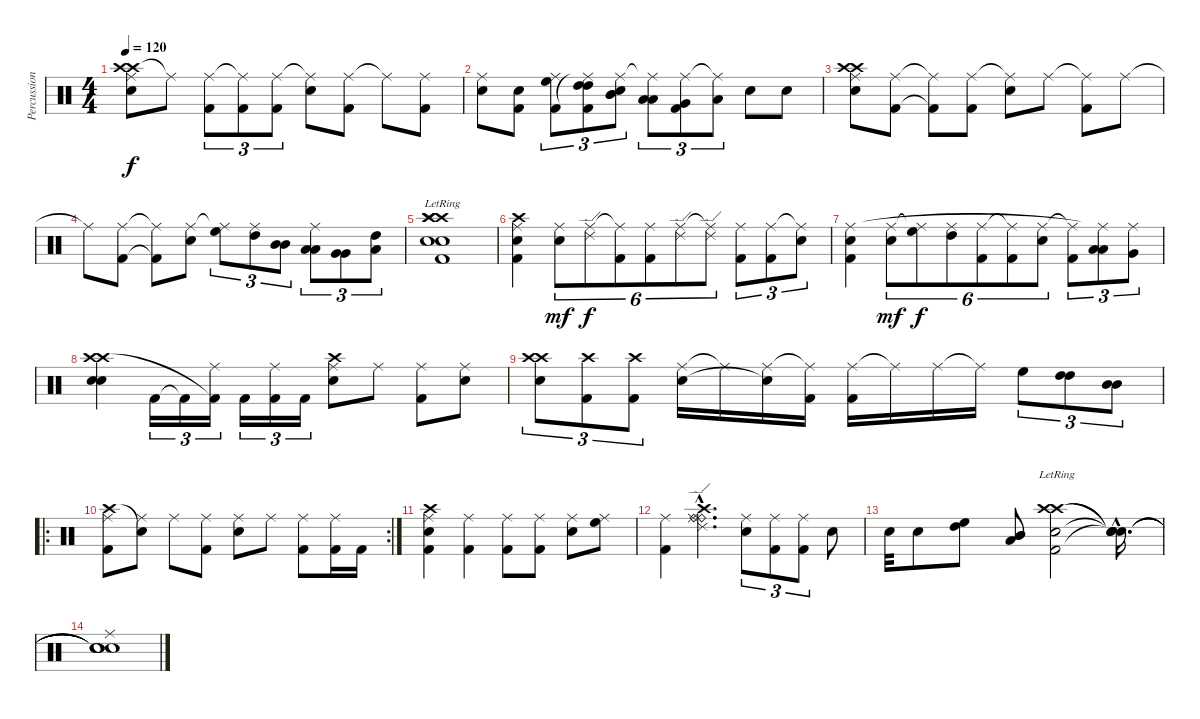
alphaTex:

\track ("Percussioni" "Percussion") {instrument percussion}
\staff {score}
\articulation defaults
\ts (4 4)
\tempo 120
\clef neutral
\ks c
("Crash high (hit)" "Crash high (hit)" "Ride (middle)" "Electric Snare (hit)").8{dy f} "Ride (middle)"{t}.8 ("Ride (middle)" "Kick (hit) 2").8{tu (3 2)} ("Ride (middle)"{t} "Kick (hit) 2").8{tu (3 2)} ("Ride (middle)" "Kick (hit) 2").8{tu (3 2)} ("Ride (middle)"{t} "Electric Snare (hit)").8 ("Ride (middle)" "Kick (hit) 2").8 "Ride (middle)"{t}.8 ("Ride (middle)" "Kick (hit) 2").8 |
("Ride (middle)" "Electric Snare (hit)").8 ("Electric Snare (hit)" "Kick (hit) 2").8 ("High Floor Tom (hit)" "Ride (middle)" "Kick (hit) 2").8{tu (3 2)} ("High Tom (hit)" "High Tom (hit)" "Ride (middle)"{t} "Kick (hit) 2").8{tu (3 2)} ("Mid Tom (hit)" "Mid Tom (hit)" "Ride (middle)" "Electric Snare (hit)").8{tu (3 2)} ("Low Tom (hit)" "Low Tom (hit)" "Ride (middle)"{t}).8{tu (3 2)} ("Very Low Tom (hit)" "Ride (middle)" "Kick (hit) 2").8{tu (3 2)} ("Low Floor Tom (hit)" "Ride (middle)"{t}).8{tu (3 2)} "Electric Snare (hit)".8 "Electric Snare (hit)".8 |
("Crash high (hit)" "Crash high (hit)" "Ride (middle)" "Electric Snare (hit)").8 ("Ride (middle)" "Kick (hit) 2").8 ("Ride (middle)"{t} "Kick (hit) 2"{t}).8 ("Ride (middle)" "Kick (hit) 2").8 ("Ride (middle)"{t} "Electric Snare (hit)").8 "Ride (middle)".8 ("Ride (middle)"{t} "Kick (hit) 2").8 "Ride (middle)".8 |
"Ride (middle)"{t}.8 ("Ride (middle)" "Kick (hit) 2").8 ("Ride (middle)"{t} "Kick (hit) 2"{t}).8 ("Ride (middle)" "Electric Snare (hit)").8 ("Ride (middle)"{t} "High Floor Tom (hit)").8{tu (3 2)} ("Ride (middle)" "High Tom (hit)").8{tu (3 2)} ("Mid Tom (hit)" "Mid Tom (hit)").8{tu (3 2)} ("Low Tom (hit)" "Low Tom (hit)" "Ride (middle)").8{tu (3 2)} ("Very Low Tom (hit)" "Very Low Tom (hit)").8{tu (3 2)} ("High Tom (hit)" "Low Floor Tom (hit)").8{tu (3 2)} |
("Kick (hit) 2" "Crash high (hit)"{lr} "Crash high (hit)"{lr} "Crash high (hit)"{lr} "Electric Snare (hit)" "Electric Snare (hit)").1 |
("Crash high (hit)" "Electric Snare (hit)" "Kick (hit) 2" "Ride (middle)").4 ("Electric Snare (hit)" "Ride (middle)").8{tu (6 4) dy mf} ("Ride (edge) 2" "Ride (middle)").8{tu (6 4) dy f} ("Kick (hit) 2" "Ride (middle)"{t}).8{tu (6 4)} ("Kick (hit) 2" "Ride (middle)").8{tu (6 4)} ("Ride (edge) 2" "Ride (middle)").8{tu (6 4)} ("Ride (edge) 2" "Ride (middle)"{t}).8{tu (6 4)} ("Kick (hit) 2" "Ride (middle)").8{tu (3 2)} ("Kick (hit) 2" "Ride (middle)").8{tu (3 2)} ("Electric Snare (hit)" "Ride (middle)"{t}).8{tu (3 2)} |
("Electric Snare (hit)" "Kick (hit) 2" "Ride (middle)").4 ("Electric Snare (hit)" "Ride (middle)").8{tu (6 4) dy mf} ("High Floor Tom (hit)" "Ride (middle)"{t}).8{tu (6 4) dy f} ("High Tom (hit)" "Ride (middle)").8{tu (6 4)} ("Kick (hit) 2" "Ride (middle)").8{tu (6 4)} ("Kick (hit) 2" "Ride (middle)"{t}).8{tu (6 4)} ("Electric Snare (hit)" "Ride (middle)").8{tu (6 4)} ("Kick (hit) 2" "Ride (middle)"{t}).8{tu (3 2)} ("Low Tom (hit)" "Low Tom (hit)" "Ride (middle)"{t}).8{tu (3 2)} ("Very Low Tom (hit)" "Ride (middle)").8{tu (3 2)} |
("Crash high (hit)" "Crash high (hit)" "Electric Snare (hit)" "Electric Snare (hit)").4 "Kick (hit) 2".16{tu (3 2)} "Kick (hit) 2"{t}.16{tu (3 2)} ("Ride (middle)" "Kick (hit) 2"{t}).16{tu (3 2)} "Kick (hit) 2".16{tu (3 2)} ("Ride (middle)" "Kick (hit) 2").16{tu (3 2)} "Kick (hit) 2".16{tu (3 2)} ("Crash high (hit)" "Electric Snare (hit)" "Ride (middle)").8 "Ride (middle)".8 ("Kick (hit) 2" "Ride (middle)").8 ("Electric Snare (hit)" "Ride (middle)").8 |
("Electric Snare (hit)" "Crash high (hit)" "Crash high (hit)").8{tu (3 2)} ("Kick (hit) 2" "Crash high (hit)").8{tu (3 2)} ("Kick (hit) 2" "Crash high (hit)").8{tu (3 2)} ("Ride (middle)" "Electric Snare (hit)").16 "Ride (middle)"{t}.16 ("Ride (middle)" "Electric Snare (hit)"{t}).16 ("Ride (middle)"{t} "Kick (hit) 2").16 ("Ride (middle)" "Kick (hit) 2").16 "Ride (middle)"{t}.16 "Ride (middle)".16 "Ride (middle)"{t}.16 "High Floor Tom (hit)".8{tu (3 2)} ("High Tom (hit)" "High Tom (hit)").8{tu (3 2) bd 60} ("Mid Tom (hit)" "Mid Tom (hit)").8{tu (3 2) bd 480} |
\ro
\rc 2
("Crash high (hit)" "Kick (hit) 2" "Ride (middle)").8 ("Snare (hit)"{t} "Ride (middle)").8 "Ride (middle)".8 ("Ride (middle)" "Kick (hit) 2").8 ("Ride (middle)" "Electric Snare (hit)").8 "Ride (middle)".8 ("Ride (middle)" "Kick (hit) 2").8 ("Ride (middle)" "Kick (hit) 2").16 "Kick (hit) 2".16 |
("Crash high (hit)" "Ride (middle)" "Electric Snare (hit)" "Kick (hit) 2").4{bd 120} ("Ride (middle)" "Kick (hit) 2").4 ("Ride (middle)" "Kick (hit) 2").8 ("Ride (middle)" "Kick (hit) 2").8 ("Ride (middle)" "Electric Snare (hit)").8 ("Ride (middle)" "High Floor Tom (hit)").8 |
("Ride (middle)" "Kick (hit) 2").4{bd 480} ("Ride (bell)"{hac} "Crash high (hit)"{hac} "Ride (bell)"{hac} "Ride (edge) 2"{hac} "Ride (middle)"{hac}).4{d bd 480} ("Ride (middle)" "Electric Snare (hit)").8{tu (3 2)} ("Ride (middle)" "Kick (hit) 2").8{tu (3 2)} ("Ride (middle)" "Kick (hit) 2").8{tu (3 2)} "Electric Snare (hit)".8 |
"Electric Snare (hit)".32 "Electric Snare (hit)".8 ("High Tom (hit)" "High Floor Tom (hit)").8{bd 240} ("Low Tom (hit)" "Mid Tom (hit)" "Mid Tom (hit)").8{bd 240} ("Crash high (hit)"{lr} "Crash high (hit)"{lr} "Electric Snare (hit)" "Kick (hit) 2").2 ("Snare (hit)"{hac t} "Snare (hit)"{hac t} "Snare (hit)"{hac t} "Snare (hit)"{hac t}).16{d} |
("Snare (hit)"{t} "Snare (hit)"{t} "Snare (hit)"{t} "Snare (hit)"{t} "Ride (middle)").1
